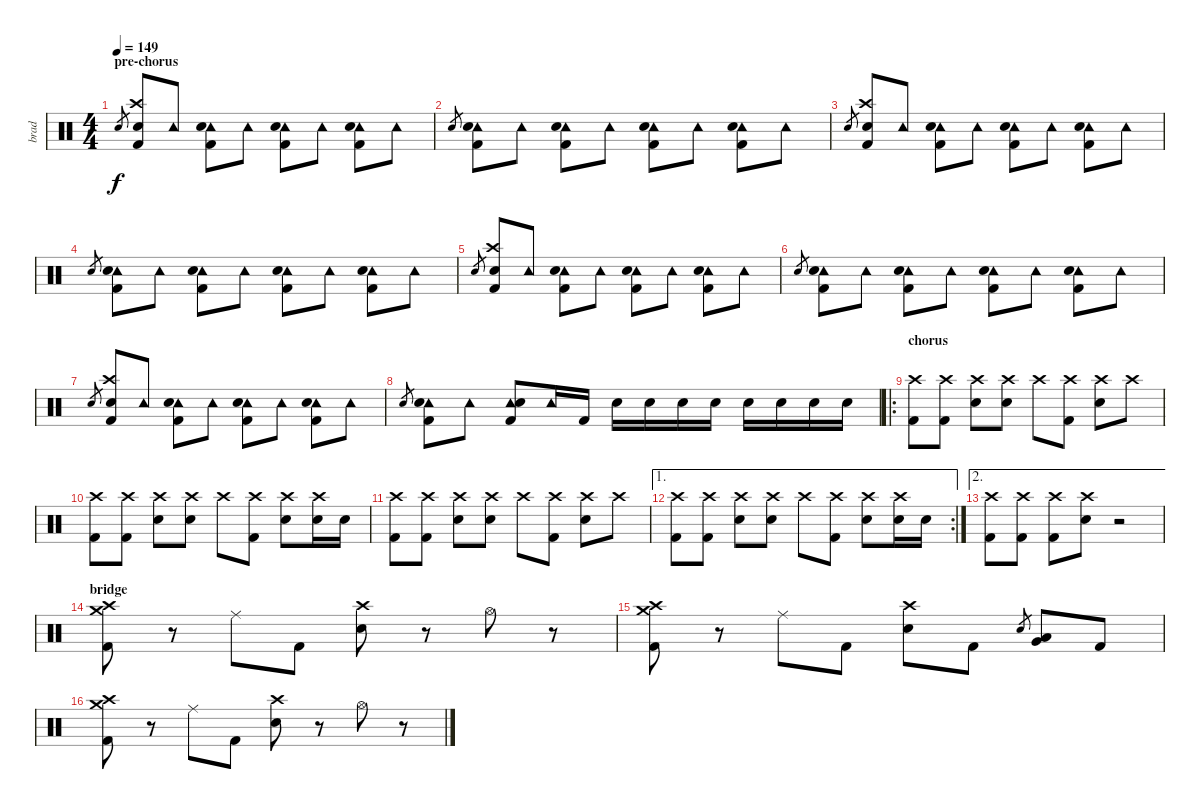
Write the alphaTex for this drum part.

\track ("brad" "brad") {instrument percussion}
\staff {score}
\articulation defaults
\ts (4 4)
\section ("" "pre-chorus")
\tempo 149
\clef neutral
\ks c "Electric Snare (hit)".8{gr dy f}
("Crash high (hit)" "Electric Snare (hit)" "Kick (hit) 2").8 "Tambourine (hit)".8 ("Tambourine (hit)" "Electric Snare (hit)" "Kick (hit) 2").8 "Tambourine (hit)".8 ("Tambourine (hit)" "Electric Snare (hit)" "Kick (hit) 2").8 "Tambourine (hit)".8 ("Tambourine (hit)" "Electric Snare (hit)" "Kick (hit) 2").8 "Tambourine (hit)".8 |
"Electric Snare (hit)".8{gr} ("Tambourine (hit)" "Electric Snare (hit)" "Kick (hit) 2").8 "Tambourine (hit)".8 ("Tambourine (hit)" "Electric Snare (hit)" "Kick (hit) 2").8 "Tambourine (hit)".8 ("Tambourine (hit)" "Electric Snare (hit)" "Kick (hit) 2").8 "Tambourine (hit)".8 ("Tambourine (hit)" "Electric Snare (hit)" "Kick (hit) 2").8 "Tambourine (hit)".8 |
"Electric Snare (hit)".8{gr} ("Crash high (hit)" "Electric Snare (hit)" "Kick (hit) 2").8 "Tambourine (hit)".8 ("Tambourine (hit)" "Electric Snare (hit)" "Kick (hit) 2").8 "Tambourine (hit)".8 ("Tambourine (hit)" "Electric Snare (hit)" "Kick (hit) 2").8 "Tambourine (hit)".8 ("Tambourine (hit)" "Electric Snare (hit)" "Kick (hit) 2").8 "Tambourine (hit)".8 |
"Electric Snare (hit)".8{gr} ("Tambourine (hit)" "Electric Snare (hit)" "Kick (hit) 2").8 "Tambourine (hit)".8 ("Tambourine (hit)" "Electric Snare (hit)" "Kick (hit) 2").8 "Tambourine (hit)".8 ("Tambourine (hit)" "Electric Snare (hit)" "Kick (hit) 2").8 "Tambourine (hit)".8 ("Tambourine (hit)" "Electric Snare (hit)" "Kick (hit) 2").8 "Tambourine (hit)".8 |
"Electric Snare (hit)".8{gr} ("Crash high (hit)" "Electric Snare (hit)" "Kick (hit) 2").8 "Tambourine (hit)".8 ("Tambourine (hit)" "Electric Snare (hit)" "Kick (hit) 2").8 "Tambourine (hit)".8 ("Tambourine (hit)" "Electric Snare (hit)" "Kick (hit) 2").8 "Tambourine (hit)".8 ("Tambourine (hit)" "Electric Snare (hit)" "Kick (hit) 2").8 "Tambourine (hit)".8 |
"Electric Snare (hit)".8{gr} ("Tambourine (hit)" "Electric Snare (hit)" "Kick (hit) 2").8 "Tambourine (hit)".8 ("Tambourine (hit)" "Electric Snare (hit)" "Kick (hit) 2").8 "Tambourine (hit)".8 ("Tambourine (hit)" "Electric Snare (hit)" "Kick (hit) 2").8 "Tambourine (hit)".8 ("Tambourine (hit)" "Electric Snare (hit)" "Kick (hit) 2").8 "Tambourine (hit)".8 |
"Electric Snare (hit)".8{gr} ("Crash high (hit)" "Electric Snare (hit)" "Kick (hit) 2").8 "Tambourine (hit)".8 ("Tambourine (hit)" "Electric Snare (hit)" "Kick (hit) 2").8 "Tambourine (hit)".8 ("Tambourine (hit)" "Electric Snare (hit)" "Kick (hit) 2").8 "Tambourine (hit)".8 ("Tambourine (hit)" "Electric Snare (hit)" "Kick (hit) 2").8 "Tambourine (hit)".8 |
"Electric Snare (hit)".8{gr} ("Tambourine (hit)" "Electric Snare (hit)" "Kick (hit) 2").8 "Tambourine (hit)".8 ("Tambourine (hit)" "Electric Snare (hit)" "Kick (hit) 2").8 "Tambourine (hit)".16 "Kick (hit) 2".16 "Electric Snare (hit)".16 "Electric Snare (hit)".16 "Electric Snare (hit)".16 "Electric Snare (hit)".16 "Electric Snare (hit)".16 "Electric Snare (hit)".16 "Electric Snare (hit)".16 "Electric Snare (hit)".16 |
\ro
\section ("" "chorus")
("Crash high (hit)" "Kick (hit) 2").8 ("Crash high (hit)" "Kick (hit) 2").8 ("Crash high (hit)" "Electric Snare (hit)").8 ("Crash high (hit)" "Electric Snare (hit)").8 "Crash high (hit)".8 ("Crash high (hit)" "Kick (hit) 2").8 ("Crash high (hit)" "Electric Snare (hit)").8 "Crash high (hit)".8 |
("Crash high (hit)" "Kick (hit) 2").8 ("Crash high (hit)" "Kick (hit) 2").8 ("Crash high (hit)" "Electric Snare (hit)").8 ("Crash high (hit)" "Electric Snare (hit)").8 "Crash high (hit)".8 ("Crash high (hit)" "Kick (hit) 2").8 ("Crash high (hit)" "Electric Snare (hit)").8 ("Crash high (hit)" "Electric Snare (hit)").16 "Electric Snare (hit)".16 |
("Crash high (hit)" "Kick (hit) 2").8 ("Crash high (hit)" "Kick (hit) 2").8 ("Crash high (hit)" "Electric Snare (hit)").8 ("Crash high (hit)" "Electric Snare (hit)").8 "Crash high (hit)".8 ("Crash high (hit)" "Kick (hit) 2").8 ("Crash high (hit)" "Electric Snare (hit)").8 "Crash high (hit)".8 |
\ae 1
\rc 2
("Crash high (hit)" "Kick (hit) 2").8 ("Crash high (hit)" "Kick (hit) 2").8 ("Crash high (hit)" "Electric Snare (hit)").8 ("Crash high (hit)" "Electric Snare (hit)").8 "Crash high (hit)".8 ("Crash high (hit)" "Kick (hit) 2").8 ("Crash high (hit)" "Electric Snare (hit)").8 ("Crash high (hit)" "Electric Snare (hit)").16 "Electric Snare (hit)".16 |
\ae 2
("Crash high (hit)" "Kick (hit) 2").8 ("Crash high (hit)" "Kick (hit) 2").8 ("Crash high (hit)" "Kick (hit) 2").8 ("Crash high (hit)" "Electric Snare (hit)").8 r.2 |
\section ("" "bridge")
("Crash medium (hit)" "Crash high (hit)" "Kick (hit) 2").8 r.8 "Ride (middle)".8 "Kick (hit) 2".8 ("Crash high (hit)" "Electric Snare (hit)").8 r.8 "Hi-Hat (open)".8 r.8 |
("Crash medium (hit)" "Crash high (hit)" "Kick (hit) 2").8 r.8 "Ride (middle)".8 "Kick (hit) 2".8 ("Crash high (hit)" "Electric Snare (hit)").8 "Kick (hit) 2".8 "Electric Snare (hit)".8{gr} ("Very Low Tom (hit)" "Low Floor Tom (hit)").8 "Kick (hit) 2".8 |
("Crash medium (hit)" "Crash high (hit)" "Kick (hit) 2").8 r.8 "Ride (middle)".8 "Kick (hit) 2".8 ("Crash high (hit)" "Electric Snare (hit)").8 r.8 "Hi-Hat (open)".8 r.8
